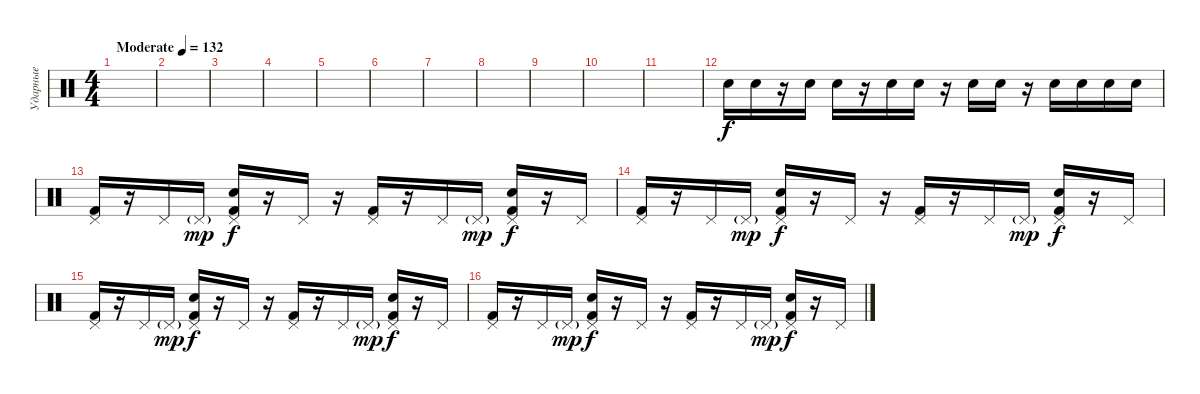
\track ("Ударные" "Ударные") {instrument percussion}
\staff {score}
\articulation defaults
\ts (4 4)
\tempo (132 "Moderate")
\clef neutral
\ks c
|
|
|
|
|
|
|
|
|
|
|
"Electric Snare (hit)".16 "Electric Snare (hit)".16 r.16 "Electric Snare (hit)".16 "Electric Snare (hit)".16 r.16 "Electric Snare (hit)".16 "Electric Snare (hit)".16 r.16 "Electric Snare (hit)".16 "Electric Snare (hit)".16 r.16 "Electric Snare (hit)".16 "Electric Snare (hit)".16 "Electric Snare (hit)".16 "Electric Snare (hit)".16 |
("Pedal Hi-Hat (hit)" "Kick (hit) 2").16 r.16 "Pedal Hi-Hat (hit)".16 "Pedal Hi-Hat (hit)"{g}.16{dy mp} ("Pedal Hi-Hat (hit)" "Snare (hit) 2" "Kick (hit) 2").16{dy f} r.16 "Pedal Hi-Hat (hit)".16 r.16 ("Pedal Hi-Hat (hit)" "Kick (hit) 2").16 r.16 "Pedal Hi-Hat (hit)".16 "Pedal Hi-Hat (hit)"{g}.16{dy mp} ("Pedal Hi-Hat (hit)" "Snare (hit) 2" "Kick (hit) 2").16{dy f} r.16 "Pedal Hi-Hat (hit)".16 |
("Pedal Hi-Hat (hit)" "Kick (hit) 2").16 r.16 "Pedal Hi-Hat (hit)".16 "Pedal Hi-Hat (hit)"{g}.16{dy mp} ("Pedal Hi-Hat (hit)" "Snare (hit) 2" "Kick (hit) 2").16{dy f} r.16 "Pedal Hi-Hat (hit)".16 r.16 ("Pedal Hi-Hat (hit)" "Kick (hit) 2").16 r.16 "Pedal Hi-Hat (hit)".16 "Pedal Hi-Hat (hit)"{g}.16{dy mp} ("Pedal Hi-Hat (hit)" "Snare (hit) 2" "Kick (hit) 2").16{dy f} r.16 "Pedal Hi-Hat (hit)".16 |
("Pedal Hi-Hat (hit)" "Kick (hit) 2").16 r.16 "Pedal Hi-Hat (hit)".16 "Pedal Hi-Hat (hit)"{g}.16{dy mp} ("Pedal Hi-Hat (hit)" "Snare (hit) 2" "Kick (hit) 2").16{dy f} r.16 "Pedal Hi-Hat (hit)".16 r.16 ("Pedal Hi-Hat (hit)" "Kick (hit) 2").16 r.16 "Pedal Hi-Hat (hit)".16 "Pedal Hi-Hat (hit)"{g}.16{dy mp} ("Pedal Hi-Hat (hit)" "Snare (hit) 2" "Kick (hit) 2").16{dy f} r.16 "Pedal Hi-Hat (hit)".16 |
("Pedal Hi-Hat (hit)" "Kick (hit) 2").16 r.16 "Pedal Hi-Hat (hit)".16 "Pedal Hi-Hat (hit)"{g}.16{dy mp} ("Pedal Hi-Hat (hit)" "Snare (hit) 2" "Kick (hit) 2").16{dy f} r.16 "Pedal Hi-Hat (hit)".16 r.16 ("Pedal Hi-Hat (hit)" "Kick (hit) 2").16 r.16 "Pedal Hi-Hat (hit)".16 "Pedal Hi-Hat (hit)"{g}.16{dy mp} ("Pedal Hi-Hat (hit)" "Snare (hit) 2" "Kick (hit) 2").16{dy f} r.16 "Pedal Hi-Hat (hit)".16
